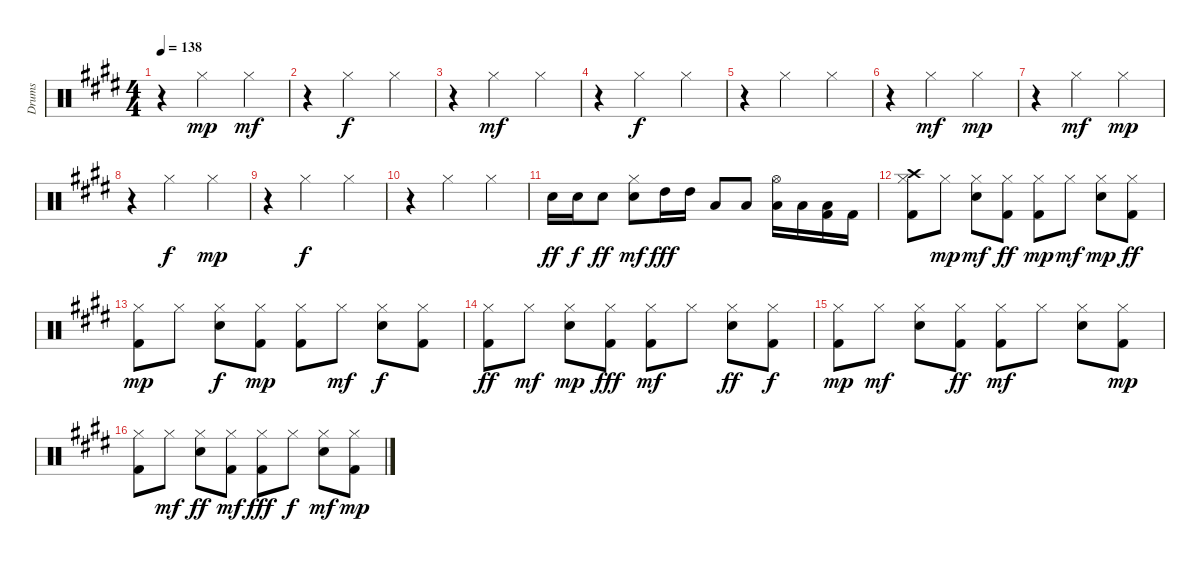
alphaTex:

\track ("Drums" "Drums") {instrument percussion}
\staff {score}
\articulation defaults
\ts (4 4)
\tempo 138
\clef neutral
\ks e
r.4{dy mf} "Hi-Hat (closed)".2{dy mp} "Hi-Hat (closed)".4{dy mf} |
r.4 "Hi-Hat (closed)".2{dy f} "Hi-Hat (closed)".4 |
r.4 "Hi-Hat (closed)".2{dy mf} "Hi-Hat (closed)".4 |
r.4 "Hi-Hat (closed)".2{dy f} "Hi-Hat (closed)".4 |
r.4 "Hi-Hat (closed)".2 "Hi-Hat (closed)".4 |
r.4 "Hi-Hat (closed)".2{dy mf} "Hi-Hat (closed)".4{dy mp} |
r.4 "Hi-Hat (closed)".2{dy mf} "Hi-Hat (closed)".4{dy mp} |
r.4 "Hi-Hat (closed)".2{dy f} "Hi-Hat (closed)".4{dy mp} |
r.4 "Hi-Hat (closed)".2{dy f} "Hi-Hat (closed)".4 |
r.4 "Hi-Hat (closed)".2 "Hi-Hat (closed)".4 |
"Snare (hit) 2".16{dy ff} "Snare (hit) 2".16{dy f} "Snare (hit) 2".8{dy ff} ("Snare (hit) 2" "Hi-Hat (closed)").8{dy mf} "High Tom (hit)".16{dy fff} "High Tom (hit)".16 "Low Tom (hit)".8 "Low Tom (hit)".8 ("Low Floor Tom (hit)" "Hi-Hat (open)").16 "Low Tom (hit)".16 ("Kick (hit) 2" "Low Floor Tom (hit)").16 "Kick (hit) 2".16 |
("Kick (hit) 2" "Hi-Hat (closed)" "Crash high (hit)").8 "Hi-Hat (closed)".8{dy mp} ("Snare (hit) 2" "Hi-Hat (closed)").8{dy mf} ("Kick (hit) 2" "Hi-Hat (closed)").8{dy ff} ("Kick (hit) 2" "Hi-Hat (closed)").8{dy mp} "Hi-Hat (closed)".8{dy mf} ("Snare (hit) 2" "Hi-Hat (closed)").8{dy mp} ("Kick (hit) 2" "Hi-Hat (closed)").8{dy ff} |
("Kick (hit) 2" "Hi-Hat (closed)").8{dy mp} "Hi-Hat (closed)".8 ("Snare (hit) 2" "Hi-Hat (closed)").8{dy f} ("Kick (hit) 2" "Hi-Hat (closed)").8{dy mp} ("Kick (hit) 2" "Hi-Hat (closed)").8 "Hi-Hat (closed)".8{dy mf} ("Snare (hit) 2" "Hi-Hat (closed)").8{dy f} ("Kick (hit) 2" "Hi-Hat (closed)").8 |
("Kick (hit) 2" "Hi-Hat (closed)").8{dy ff} "Hi-Hat (closed)".8{dy mf} ("Snare (hit) 2" "Hi-Hat (closed)").8{dy mp} ("Kick (hit) 2" "Hi-Hat (closed)").8{dy fff} ("Kick (hit) 2" "Hi-Hat (closed)").8{dy mf} "Hi-Hat (closed)".8 ("Snare (hit) 2" "Hi-Hat (closed)").8{dy ff} ("Kick (hit) 2" "Hi-Hat (closed)").8{dy f} |
("Kick (hit) 2" "Hi-Hat (closed)").8{dy mp} "Hi-Hat (closed)".8{dy mf} ("Snare (hit) 2" "Hi-Hat (closed)").8 ("Kick (hit) 2" "Hi-Hat (closed)").8{dy ff} ("Kick (hit) 2" "Hi-Hat (closed)").8{dy mf} "Hi-Hat (closed)".8 ("Snare (hit) 2" "Hi-Hat (closed)").8 ("Kick (hit) 2" "Hi-Hat (closed)").8{dy mp} |
("Kick (hit) 2" "Hi-Hat (closed)").8 "Hi-Hat (closed)".8{dy mf} ("Snare (hit) 2" "Hi-Hat (closed)").8{dy ff} ("Kick (hit) 2" "Hi-Hat (closed)").8{dy mf} ("Kick (hit) 2" "Hi-Hat (closed)").8{dy fff} "Hi-Hat (closed)".8{dy f} ("Snare (hit) 2" "Hi-Hat (closed)").8{dy mf} ("Kick (hit) 2" "Hi-Hat (closed)").8{dy mp}
